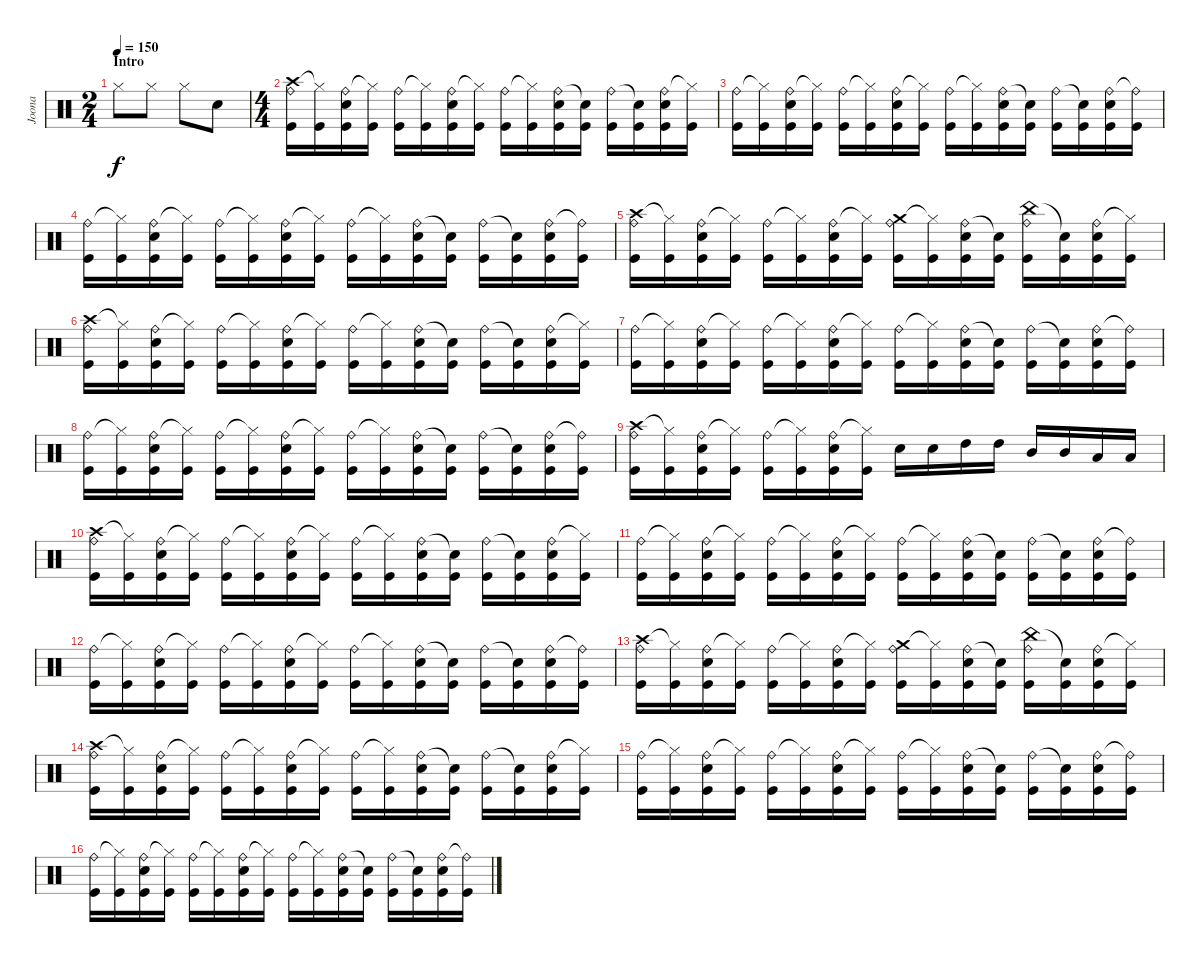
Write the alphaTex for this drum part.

\track ("Joona" "Joona") {instrument percussion}
\staff {score}
\articulation defaults
\ts (2 4)
\section ("" "Intro")
\tempo 150
\clef neutral
\ks c "Hi-Hat (closed)".8{dy f} "Hi-Hat (closed)".8 "Hi-Hat (closed)".8 "Snare (hit) 2".8
|
\ts (4 4)
("Crash high (hit)" "Ride (bell)" "Kick (hit)").16 ("Hi-Hat (closed)"{t} "Kick (hit)").16 ("Ride (bell)" "Snare (hit) 2" "Kick (hit)").16 ("Hi-Hat (closed)"{t} "Kick (hit)").16 ("Ride (bell)" "Kick (hit)").16 ("Hi-Hat (closed)"{t} "Kick (hit)").16 ("Ride (bell)" "Snare (hit) 2" "Kick (hit)").16 ("Hi-Hat (closed)"{t} "Kick (hit)").16 ("Ride (bell)" "Kick (hit)").16 ("Hi-Hat (closed)"{t} "Kick (hit)").16 ("Ride (bell)" "Snare (hit) 2" "Kick (hit)").16 ("Snare (hit)"{t} "Kick (hit)").16 ("Ride (bell)" "Kick (hit)").16 ("Snare (hit)"{t} "Kick (hit)").16 ("Ride (bell)" "Snare (hit) 2" "Kick (hit)").16 ("Hi-Hat (closed)"{t} "Kick (hit)").16 |
("Ride (bell)" "Kick (hit)").16 ("Hi-Hat (closed)"{t} "Kick (hit)").16 ("Ride (bell)" "Snare (hit) 2" "Kick (hit)").16 ("Hi-Hat (closed)"{t} "Kick (hit)").16 ("Ride (bell)" "Kick (hit)").16 ("Hi-Hat (closed)"{t} "Kick (hit)").16 ("Ride (bell)" "Snare (hit) 2" "Kick (hit)").16 ("Hi-Hat (closed)"{t} "Kick (hit)").16 ("Ride (bell)" "Kick (hit)").16 ("Hi-Hat (closed)"{t} "Kick (hit)").16 ("Ride (bell)" "Snare (hit) 2" "Kick (hit)").16 ("Snare (hit)"{t} "Kick (hit)").16 ("Ride (bell)" "Kick (hit)").16 ("Snare (hit)"{t} "Kick (hit)").16 ("Ride (bell)" "Snare (hit) 2" "Kick (hit)").16 ("Ride (bell)"{t} "Kick (hit)").16 |
("Ride (bell)" "Kick (hit)").16 ("Hi-Hat (closed)"{t} "Kick (hit)").16 ("Ride (bell)" "Snare (hit) 2" "Kick (hit)").16 ("Hi-Hat (closed)"{t} "Kick (hit)").16 ("Ride (bell)" "Kick (hit)").16 ("Hi-Hat (closed)"{t} "Kick (hit)").16 ("Ride (bell)" "Snare (hit) 2" "Kick (hit)").16 ("Hi-Hat (closed)"{t} "Kick (hit)").16 ("Ride (bell)" "Kick (hit)").16 ("Hi-Hat (closed)"{t} "Kick (hit)").16 ("Ride (bell)" "Snare (hit) 2" "Kick (hit)").16 ("Snare (hit)"{t} "Kick (hit)").16 ("Ride (bell)" "Kick (hit)").16 ("Snare (hit)"{t} "Kick (hit)").16 ("Ride (bell)" "Snare (hit) 2" "Kick (hit)").16 ("Ride (bell)"{t} "Kick (hit)").16 |
("Crash high (hit)" "Ride (bell)" "Kick (hit)").16 ("Hi-Hat (closed)"{t} "Kick (hit)").16 ("Ride (bell)" "Snare (hit) 2" "Kick (hit)").16 ("Hi-Hat (closed)"{t} "Kick (hit)").16 ("Ride (bell)" "Kick (hit)").16 ("Hi-Hat (closed)"{t} "Kick (hit)").16 ("Ride (bell)" "Snare (hit) 2" "Kick (hit)").16 ("Hi-Hat (closed)"{t} "Kick (hit)").16 ("Crash medium (hit)" "Ride (bell)" "Kick (hit)").16 ("Hi-Hat (closed)"{t} "Kick (hit)").16 ("Ride (bell)" "Snare (hit) 2" "Kick (hit)").16 ("Snare (hit)"{t} "Kick (hit)").16 ("China (hit)" "Ride (bell)" "Kick (hit)").16 ("Snare (hit)"{t} "Kick (hit)").16 ("Ride (bell)" "Snare (hit) 2" "Kick (hit)").16 ("Hi-Hat (closed)"{t} "Kick (hit)").16 |
("Crash high (hit)" "Ride (bell)" "Kick (hit)").16 ("Hi-Hat (closed)"{t} "Kick (hit)").16 ("Ride (bell)" "Snare (hit) 2" "Kick (hit)").16 ("Hi-Hat (closed)"{t} "Kick (hit)").16 ("Ride (bell)" "Kick (hit)").16 ("Hi-Hat (closed)"{t} "Kick (hit)").16 ("Ride (bell)" "Snare (hit) 2" "Kick (hit)").16 ("Hi-Hat (closed)"{t} "Kick (hit)").16 ("Ride (bell)" "Kick (hit)").16 ("Hi-Hat (closed)"{t} "Kick (hit)").16 ("Ride (bell)" "Snare (hit) 2" "Kick (hit)").16 ("Snare (hit)"{t} "Kick (hit)").16 ("Ride (bell)" "Kick (hit)").16 ("Snare (hit)"{t} "Kick (hit)").16 ("Ride (bell)" "Snare (hit) 2" "Kick (hit)").16 ("Hi-Hat (closed)"{t} "Kick (hit)").16 |
("Ride (bell)" "Kick (hit)").16 ("Hi-Hat (closed)"{t} "Kick (hit)").16 ("Ride (bell)" "Snare (hit) 2" "Kick (hit)").16 ("Hi-Hat (closed)"{t} "Kick (hit)").16 ("Ride (bell)" "Kick (hit)").16 ("Hi-Hat (closed)"{t} "Kick (hit)").16 ("Ride (bell)" "Snare (hit) 2" "Kick (hit)").16 ("Hi-Hat (closed)"{t} "Kick (hit)").16 ("Ride (bell)" "Kick (hit)").16 ("Hi-Hat (closed)"{t} "Kick (hit)").16 ("Ride (bell)" "Snare (hit) 2" "Kick (hit)").16 ("Snare (hit)"{t} "Kick (hit)").16 ("Ride (bell)" "Kick (hit)").16 ("Snare (hit)"{t} "Kick (hit)").16 ("Ride (bell)" "Snare (hit) 2" "Kick (hit)").16 ("Ride (bell)"{t} "Kick (hit)").16 |
("Ride (bell)" "Kick (hit)").16 ("Hi-Hat (closed)"{t} "Kick (hit)").16 ("Ride (bell)" "Snare (hit) 2" "Kick (hit)").16 ("Hi-Hat (closed)"{t} "Kick (hit)").16 ("Ride (bell)" "Kick (hit)").16 ("Hi-Hat (closed)"{t} "Kick (hit)").16 ("Ride (bell)" "Snare (hit) 2" "Kick (hit)").16 ("Hi-Hat (closed)"{t} "Kick (hit)").16 ("Ride (bell)" "Kick (hit)").16 ("Hi-Hat (closed)"{t} "Kick (hit)").16 ("Ride (bell)" "Snare (hit) 2" "Kick (hit)").16 ("Snare (hit)"{t} "Kick (hit)").16 ("Ride (bell)" "Kick (hit)").16 ("Snare (hit)"{t} "Kick (hit)").16 ("Ride (bell)" "Snare (hit) 2" "Kick (hit)").16 ("Ride (bell)"{t} "Kick (hit)").16 |
("Crash high (hit)" "Ride (bell)" "Kick (hit)").16 ("Hi-Hat (closed)"{t} "Kick (hit)").16 ("Ride (bell)" "Snare (hit) 2" "Kick (hit)").16 ("Hi-Hat (closed)"{t} "Kick (hit)").16 ("Ride (bell)" "Kick (hit)").16 ("Hi-Hat (closed)"{t} "Kick (hit)").16 ("Ride (bell)" "Snare (hit) 2" "Kick (hit)").16 ("Hi-Hat (closed)"{t} "Kick (hit)").16 "Snare (hit) 2".16 "Snare (hit) 2".16 "High Tom (hit)".16 "High Tom (hit)".16 "Mid Tom (hit)".16 "Mid Tom (hit)".16 "Low Tom (hit)".16 "Low Tom (hit)".16 |
("Crash high (hit)" "Ride (bell)" "Kick (hit)").16 ("Hi-Hat (closed)"{t} "Kick (hit)").16 ("Ride (bell)" "Snare (hit) 2" "Kick (hit)").16 ("Hi-Hat (closed)"{t} "Kick (hit)").16 ("Ride (bell)" "Kick (hit)").16 ("Hi-Hat (closed)"{t} "Kick (hit)").16 ("Ride (bell)" "Snare (hit) 2" "Kick (hit)").16 ("Hi-Hat (closed)"{t} "Kick (hit)").16 ("Ride (bell)" "Kick (hit)").16 ("Hi-Hat (closed)"{t} "Kick (hit)").16 ("Ride (bell)" "Snare (hit) 2" "Kick (hit)").16 ("Snare (hit)"{t} "Kick (hit)").16 ("Ride (bell)" "Kick (hit)").16 ("Snare (hit)"{t} "Kick (hit)").16 ("Ride (bell)" "Snare (hit) 2" "Kick (hit)").16 ("Hi-Hat (closed)"{t} "Kick (hit)").16 |
("Ride (bell)" "Kick (hit)").16 ("Hi-Hat (closed)"{t} "Kick (hit)").16 ("Ride (bell)" "Snare (hit) 2" "Kick (hit)").16 ("Hi-Hat (closed)"{t} "Kick (hit)").16 ("Ride (bell)" "Kick (hit)").16 ("Hi-Hat (closed)"{t} "Kick (hit)").16 ("Ride (bell)" "Snare (hit) 2" "Kick (hit)").16 ("Hi-Hat (closed)"{t} "Kick (hit)").16 ("Ride (bell)" "Kick (hit)").16 ("Hi-Hat (closed)"{t} "Kick (hit)").16 ("Ride (bell)" "Snare (hit) 2" "Kick (hit)").16 ("Snare (hit)"{t} "Kick (hit)").16 ("Ride (bell)" "Kick (hit)").16 ("Snare (hit)"{t} "Kick (hit)").16 ("Ride (bell)" "Snare (hit) 2" "Kick (hit)").16 ("Ride (bell)"{t} "Kick (hit)").16 |
("Ride (bell)" "Kick (hit)").16 ("Hi-Hat (closed)"{t} "Kick (hit)").16 ("Ride (bell)" "Snare (hit) 2" "Kick (hit)").16 ("Hi-Hat (closed)"{t} "Kick (hit)").16 ("Ride (bell)" "Kick (hit)").16 ("Hi-Hat (closed)"{t} "Kick (hit)").16 ("Ride (bell)" "Snare (hit) 2" "Kick (hit)").16 ("Hi-Hat (closed)"{t} "Kick (hit)").16 ("Ride (bell)" "Kick (hit)").16 ("Hi-Hat (closed)"{t} "Kick (hit)").16 ("Ride (bell)" "Snare (hit) 2" "Kick (hit)").16 ("Snare (hit)"{t} "Kick (hit)").16 ("Ride (bell)" "Kick (hit)").16 ("Snare (hit)"{t} "Kick (hit)").16 ("Ride (bell)" "Snare (hit) 2" "Kick (hit)").16 ("Ride (bell)"{t} "Kick (hit)").16 |
("Crash high (hit)" "Ride (bell)" "Kick (hit)").16 ("Hi-Hat (closed)"{t} "Kick (hit)").16 ("Ride (bell)" "Snare (hit) 2" "Kick (hit)").16 ("Hi-Hat (closed)"{t} "Kick (hit)").16 ("Ride (bell)" "Kick (hit)").16 ("Hi-Hat (closed)"{t} "Kick (hit)").16 ("Ride (bell)" "Snare (hit) 2" "Kick (hit)").16 ("Hi-Hat (closed)"{t} "Kick (hit)").16 ("Crash medium (hit)" "Ride (bell)" "Kick (hit)").16 ("Hi-Hat (closed)"{t} "Kick (hit)").16 ("Ride (bell)" "Snare (hit) 2" "Kick (hit)").16 ("Snare (hit)"{t} "Kick (hit)").16 ("China (hit)" "Ride (bell)" "Kick (hit)").16 ("Snare (hit)"{t} "Kick (hit)").16 ("Ride (bell)" "Snare (hit) 2" "Kick (hit)").16 ("Hi-Hat (closed)"{t} "Kick (hit)").16 |
("Crash high (hit)" "Ride (bell)" "Kick (hit)").16 ("Hi-Hat (closed)"{t} "Kick (hit)").16 ("Ride (bell)" "Snare (hit) 2" "Kick (hit)").16 ("Hi-Hat (closed)"{t} "Kick (hit)").16 ("Ride (bell)" "Kick (hit)").16 ("Hi-Hat (closed)"{t} "Kick (hit)").16 ("Ride (bell)" "Snare (hit) 2" "Kick (hit)").16 ("Hi-Hat (closed)"{t} "Kick (hit)").16 ("Ride (bell)" "Kick (hit)").16 ("Hi-Hat (closed)"{t} "Kick (hit)").16 ("Ride (bell)" "Snare (hit) 2" "Kick (hit)").16 ("Snare (hit)"{t} "Kick (hit)").16 ("Ride (bell)" "Kick (hit)").16 ("Snare (hit)"{t} "Kick (hit)").16 ("Ride (bell)" "Snare (hit) 2" "Kick (hit)").16 ("Hi-Hat (closed)"{t} "Kick (hit)").16 |
("Ride (bell)" "Kick (hit)").16 ("Hi-Hat (closed)"{t} "Kick (hit)").16 ("Ride (bell)" "Snare (hit) 2" "Kick (hit)").16 ("Hi-Hat (closed)"{t} "Kick (hit)").16 ("Ride (bell)" "Kick (hit)").16 ("Hi-Hat (closed)"{t} "Kick (hit)").16 ("Ride (bell)" "Snare (hit) 2" "Kick (hit)").16 ("Hi-Hat (closed)"{t} "Kick (hit)").16 ("Ride (bell)" "Kick (hit)").16 ("Hi-Hat (closed)"{t} "Kick (hit)").16 ("Ride (bell)" "Snare (hit) 2" "Kick (hit)").16 ("Snare (hit)"{t} "Kick (hit)").16 ("Ride (bell)" "Kick (hit)").16 ("Snare (hit)"{t} "Kick (hit)").16 ("Ride (bell)" "Snare (hit) 2" "Kick (hit)").16 ("Ride (bell)"{t} "Kick (hit)").16 |
("Ride (bell)" "Kick (hit)").16 ("Hi-Hat (closed)"{t} "Kick (hit)").16 ("Ride (bell)" "Snare (hit) 2" "Kick (hit)").16 ("Hi-Hat (closed)"{t} "Kick (hit)").16 ("Ride (bell)" "Kick (hit)").16 ("Hi-Hat (closed)"{t} "Kick (hit)").16 ("Ride (bell)" "Snare (hit) 2" "Kick (hit)").16 ("Hi-Hat (closed)"{t} "Kick (hit)").16 ("Ride (bell)" "Kick (hit)").16 ("Hi-Hat (closed)"{t} "Kick (hit)").16 ("Ride (bell)" "Snare (hit) 2" "Kick (hit)").16 ("Snare (hit)"{t} "Kick (hit)").16 ("Ride (bell)" "Kick (hit)").16 ("Snare (hit)"{t} "Kick (hit)").16 ("Ride (bell)" "Snare (hit) 2" "Kick (hit)").16 ("Ride (bell)"{t} "Kick (hit)").16
